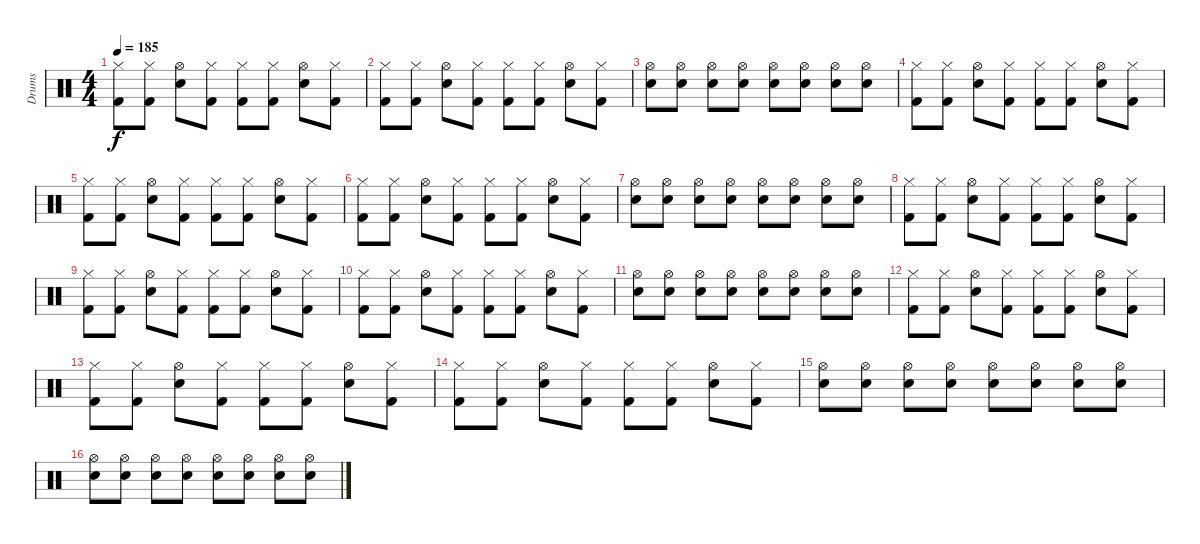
\track ("Drums" "Drums") {instrument percussion}
\staff {score}
\articulation defaults
\ts (4 4)
\tempo 185
\clef neutral
\ks c
("Hi-Hat (closed)" "Kick (hit) 2").8{dy f} ("Hi-Hat (closed)" "Kick (hit) 2").8 ("Hi-Hat (open)" "Snare (hit) 2").8 ("Hi-Hat (closed)" "Kick (hit) 2").8 ("Hi-Hat (closed)" "Kick (hit) 2").8 ("Hi-Hat (closed)" "Kick (hit) 2").8 ("Hi-Hat (open)" "Snare (hit) 2").8 ("Hi-Hat (closed)" "Kick (hit) 2").8 |
("Hi-Hat (closed)" "Kick (hit) 2").8 ("Hi-Hat (closed)" "Kick (hit) 2").8 ("Hi-Hat (open)" "Snare (hit) 2").8 ("Hi-Hat (closed)" "Kick (hit) 2").8 ("Hi-Hat (closed)" "Kick (hit) 2").8 ("Hi-Hat (closed)" "Kick (hit) 2").8 ("Hi-Hat (open)" "Snare (hit) 2").8 ("Hi-Hat (closed)" "Kick (hit) 2").8 |
("Hi-Hat (open)" "Snare (hit) 2").8 ("Hi-Hat (open)" "Snare (hit) 2").8 ("Hi-Hat (open)" "Snare (hit) 2").8 ("Hi-Hat (open)" "Snare (hit) 2").8 ("Hi-Hat (open)" "Snare (hit) 2").8 ("Hi-Hat (open)" "Snare (hit) 2").8 ("Hi-Hat (open)" "Snare (hit) 2").8 ("Hi-Hat (open)" "Snare (hit) 2").8 |
("Hi-Hat (closed)" "Kick (hit) 2").8 ("Hi-Hat (closed)" "Kick (hit) 2").8 ("Hi-Hat (open)" "Snare (hit) 2").8 ("Hi-Hat (closed)" "Kick (hit) 2").8 ("Hi-Hat (closed)" "Kick (hit) 2").8 ("Hi-Hat (closed)" "Kick (hit) 2").8 ("Hi-Hat (open)" "Snare (hit) 2").8 ("Hi-Hat (closed)" "Kick (hit) 2").8 |
("Hi-Hat (closed)" "Kick (hit) 2").8 ("Hi-Hat (closed)" "Kick (hit) 2").8 ("Hi-Hat (open)" "Snare (hit) 2").8 ("Hi-Hat (closed)" "Kick (hit) 2").8 ("Hi-Hat (closed)" "Kick (hit) 2").8 ("Hi-Hat (closed)" "Kick (hit) 2").8 ("Hi-Hat (open)" "Snare (hit) 2").8 ("Hi-Hat (closed)" "Kick (hit) 2").8 |
("Hi-Hat (closed)" "Kick (hit) 2").8 ("Hi-Hat (closed)" "Kick (hit) 2").8 ("Hi-Hat (open)" "Snare (hit) 2").8 ("Hi-Hat (closed)" "Kick (hit) 2").8 ("Hi-Hat (closed)" "Kick (hit) 2").8 ("Hi-Hat (closed)" "Kick (hit) 2").8 ("Hi-Hat (open)" "Snare (hit) 2").8 ("Hi-Hat (closed)" "Kick (hit) 2").8 |
("Hi-Hat (open)" "Snare (hit) 2").8 ("Hi-Hat (open)" "Snare (hit) 2").8 ("Hi-Hat (open)" "Snare (hit) 2").8 ("Hi-Hat (open)" "Snare (hit) 2").8 ("Hi-Hat (open)" "Snare (hit) 2").8 ("Hi-Hat (open)" "Snare (hit) 2").8 ("Hi-Hat (open)" "Snare (hit) 2").8 ("Hi-Hat (open)" "Snare (hit) 2").8 |
("Hi-Hat (closed)" "Kick (hit) 2").8 ("Hi-Hat (closed)" "Kick (hit) 2").8 ("Hi-Hat (open)" "Snare (hit) 2").8 ("Hi-Hat (closed)" "Kick (hit) 2").8 ("Hi-Hat (closed)" "Kick (hit) 2").8 ("Hi-Hat (closed)" "Kick (hit) 2").8 ("Hi-Hat (open)" "Snare (hit) 2").8 ("Hi-Hat (closed)" "Kick (hit) 2").8 |
("Hi-Hat (closed)" "Kick (hit) 2").8 ("Hi-Hat (closed)" "Kick (hit) 2").8 ("Hi-Hat (open)" "Snare (hit) 2").8 ("Hi-Hat (closed)" "Kick (hit) 2").8 ("Hi-Hat (closed)" "Kick (hit) 2").8 ("Hi-Hat (closed)" "Kick (hit) 2").8 ("Hi-Hat (open)" "Snare (hit) 2").8 ("Hi-Hat (closed)" "Kick (hit) 2").8 |
("Hi-Hat (closed)" "Kick (hit) 2").8 ("Hi-Hat (closed)" "Kick (hit) 2").8 ("Hi-Hat (open)" "Snare (hit) 2").8 ("Hi-Hat (closed)" "Kick (hit) 2").8 ("Hi-Hat (closed)" "Kick (hit) 2").8 ("Hi-Hat (closed)" "Kick (hit) 2").8 ("Hi-Hat (open)" "Snare (hit) 2").8 ("Hi-Hat (closed)" "Kick (hit) 2").8 |
("Hi-Hat (open)" "Snare (hit) 2").8 ("Hi-Hat (open)" "Snare (hit) 2").8 ("Hi-Hat (open)" "Snare (hit) 2").8 ("Hi-Hat (open)" "Snare (hit) 2").8 ("Hi-Hat (open)" "Snare (hit) 2").8 ("Hi-Hat (open)" "Snare (hit) 2").8 ("Hi-Hat (open)" "Snare (hit) 2").8 ("Hi-Hat (open)" "Snare (hit) 2").8 |
("Hi-Hat (closed)" "Kick (hit) 2").8 ("Hi-Hat (closed)" "Kick (hit) 2").8 ("Hi-Hat (open)" "Snare (hit) 2").8 ("Hi-Hat (closed)" "Kick (hit) 2").8 ("Hi-Hat (closed)" "Kick (hit) 2").8 ("Hi-Hat (closed)" "Kick (hit) 2").8 ("Hi-Hat (open)" "Snare (hit) 2").8 ("Hi-Hat (closed)" "Kick (hit) 2").8 |
("Hi-Hat (closed)" "Kick (hit) 2").8 ("Hi-Hat (closed)" "Kick (hit) 2").8 ("Hi-Hat (open)" "Snare (hit) 2").8 ("Hi-Hat (closed)" "Kick (hit) 2").8 ("Hi-Hat (closed)" "Kick (hit) 2").8 ("Hi-Hat (closed)" "Kick (hit) 2").8 ("Hi-Hat (open)" "Snare (hit) 2").8 ("Hi-Hat (closed)" "Kick (hit) 2").8 |
("Hi-Hat (closed)" "Kick (hit) 2").8 ("Hi-Hat (closed)" "Kick (hit) 2").8 ("Hi-Hat (open)" "Snare (hit) 2").8 ("Hi-Hat (closed)" "Kick (hit) 2").8 ("Hi-Hat (closed)" "Kick (hit) 2").8 ("Hi-Hat (closed)" "Kick (hit) 2").8 ("Hi-Hat (open)" "Snare (hit) 2").8 ("Hi-Hat (closed)" "Kick (hit) 2").8 |
("Hi-Hat (open)" "Snare (hit) 2").8 ("Hi-Hat (open)" "Snare (hit) 2").8 ("Hi-Hat (open)" "Snare (hit) 2").8 ("Hi-Hat (open)" "Snare (hit) 2").8 ("Hi-Hat (open)" "Snare (hit) 2").8 ("Hi-Hat (open)" "Snare (hit) 2").8 ("Hi-Hat (open)" "Snare (hit) 2").8 ("Hi-Hat (open)" "Snare (hit) 2").8 |
("Hi-Hat (open)" "Snare (hit) 2").8 ("Hi-Hat (open)" "Snare (hit) 2").8 ("Hi-Hat (open)" "Snare (hit) 2").8 ("Hi-Hat (open)" "Snare (hit) 2").8 ("Hi-Hat (open)" "Snare (hit) 2").8 ("Hi-Hat (open)" "Snare (hit) 2").8 ("Hi-Hat (open)" "Snare (hit) 2").8 ("Hi-Hat (open)" "Snare (hit) 2").8
